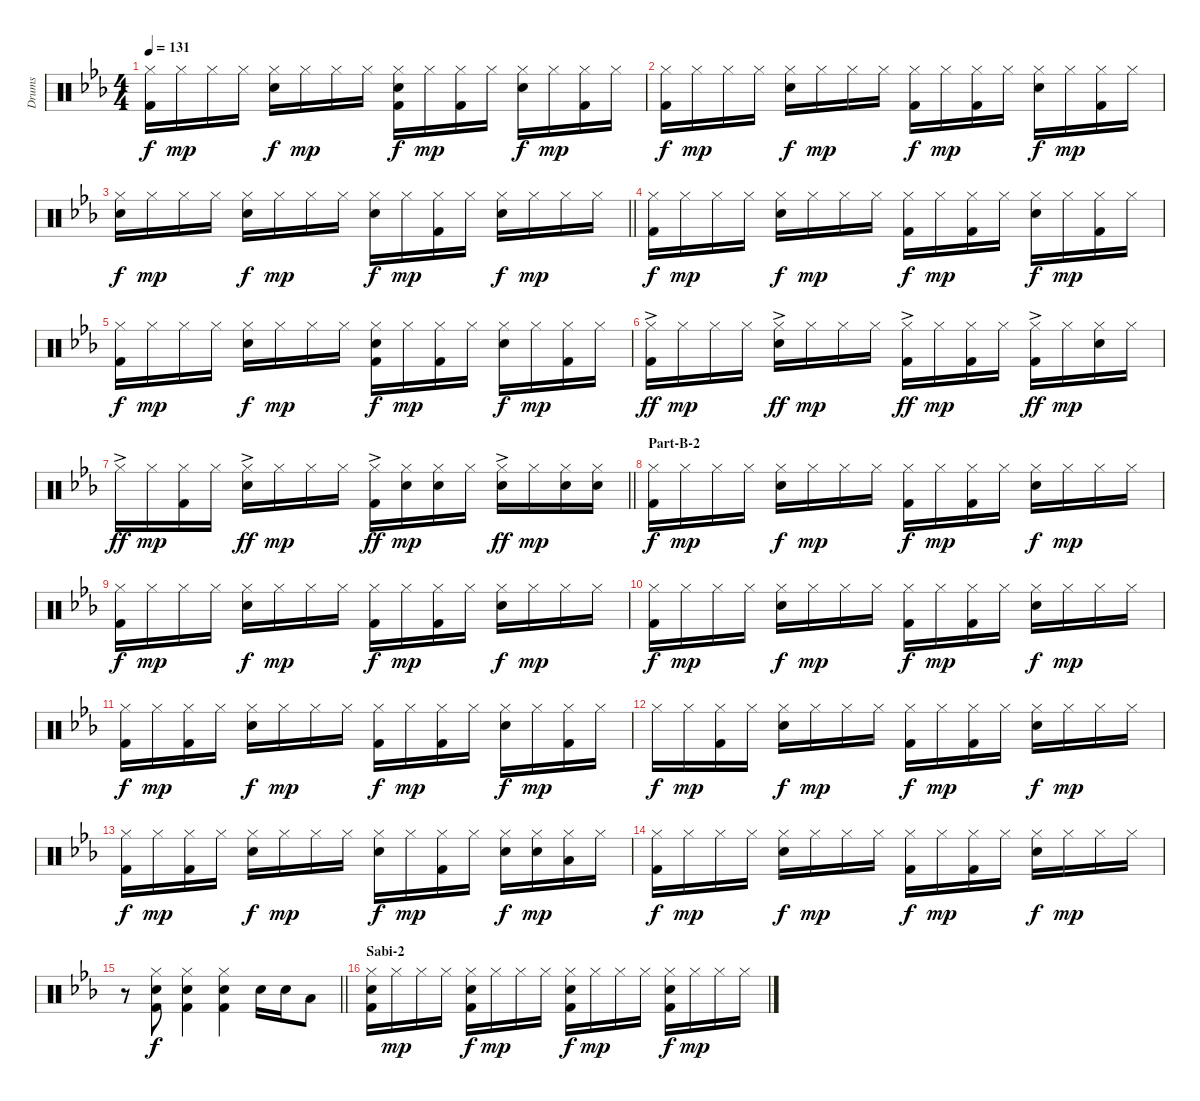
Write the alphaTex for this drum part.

\track ("Drums" "Drums") {instrument percussion}
\staff {score}
\articulation defaults
\ts (4 4)
\tempo 131
\clef neutral
\ks eb
("Hi-Hat (closed)" "Kick (hit) 2").16{dy f} "Hi-Hat (closed)".16{dy mp} "Hi-Hat (closed)".16 "Hi-Hat (closed)".16 ("Hi-Hat (closed)" "Snare (hit) 2").16{dy f} "Hi-Hat (closed)".16{dy mp} "Hi-Hat (closed)".16 "Hi-Hat (closed)".16 ("Hi-Hat (closed)" "Snare (hit) 2" "Kick (hit) 2").16{dy f} "Hi-Hat (closed)".16{dy mp} ("Hi-Hat (closed)" "Kick (hit) 2").16 "Hi-Hat (closed)".16 ("Hi-Hat (closed)" "Snare (hit) 2").16{dy f} "Hi-Hat (closed)".16{dy mp} ("Hi-Hat (closed)" "Kick (hit) 2").16 "Hi-Hat (closed)".16 |
("Hi-Hat (closed)" "Kick (hit) 2").16{dy f} "Hi-Hat (closed)".16{dy mp} "Hi-Hat (closed)".16 "Hi-Hat (closed)".16 ("Hi-Hat (closed)" "Snare (hit) 2").16{dy f} "Hi-Hat (closed)".16{dy mp} "Hi-Hat (closed)".16 "Hi-Hat (closed)".16 ("Hi-Hat (closed)" "Kick (hit) 2").16{dy f} "Hi-Hat (closed)".16{dy mp} ("Hi-Hat (closed)" "Kick (hit) 2").16 "Hi-Hat (closed)".16 ("Hi-Hat (closed)" "Snare (hit) 2").16{dy f} "Hi-Hat (closed)".16{dy mp} ("Hi-Hat (closed)" "Kick (hit) 2").16 "Hi-Hat (closed)".16 |
\barLineRight lightlight
("Hi-Hat (closed)" "Snare (hit) 2").16{dy f} "Hi-Hat (closed)".16{dy mp} "Hi-Hat (closed)".16 "Hi-Hat (closed)".16 ("Hi-Hat (closed)" "Snare (hit) 2").16{dy f} "Hi-Hat (closed)".16{dy mp} "Hi-Hat (closed)".16 "Hi-Hat (closed)".16 ("Hi-Hat (closed)" "Snare (hit) 2").16{dy f} "Hi-Hat (closed)".16{dy mp} ("Hi-Hat (closed)" "Kick (hit) 2").16 "Hi-Hat (closed)".16 ("Hi-Hat (closed)" "Snare (hit) 2").16{dy f} "Hi-Hat (closed)".16{dy mp} "Hi-Hat (closed)".16 "Hi-Hat (closed)".16 |
("Hi-Hat (closed)" "Kick (hit) 2").16{dy f} "Hi-Hat (closed)".16{dy mp} "Hi-Hat (closed)".16 "Hi-Hat (closed)".16 ("Hi-Hat (closed)" "Snare (hit) 2").16{dy f} "Hi-Hat (closed)".16{dy mp} "Hi-Hat (closed)".16 "Hi-Hat (closed)".16 ("Hi-Hat (closed)" "Kick (hit) 2").16{dy f} "Hi-Hat (closed)".16{dy mp} ("Hi-Hat (closed)" "Kick (hit) 2").16 "Hi-Hat (closed)".16 ("Hi-Hat (closed)" "Snare (hit) 2").16{dy f} "Hi-Hat (closed)".16{dy mp} ("Hi-Hat (closed)" "Kick (hit) 2").16 "Hi-Hat (closed)".16 |
("Hi-Hat (closed)" "Kick (hit) 2").16{dy f} "Hi-Hat (closed)".16{dy mp} "Hi-Hat (closed)".16 "Hi-Hat (closed)".16 ("Hi-Hat (closed)" "Snare (hit) 2").16{dy f} "Hi-Hat (closed)".16{dy mp} "Hi-Hat (closed)".16 "Hi-Hat (closed)".16 ("Hi-Hat (closed)" "Snare (hit) 2" "Kick (hit) 2").16{dy f} "Hi-Hat (closed)".16{dy mp} ("Hi-Hat (closed)" "Kick (hit) 2").16 "Hi-Hat (closed)".16 ("Hi-Hat (closed)" "Snare (hit) 2").16{dy f} "Hi-Hat (closed)".16{dy mp} ("Hi-Hat (closed)" "Kick (hit) 2").16 "Hi-Hat (closed)".16 |
("Hi-Hat (closed)"{ac} "Kick (hit) 2").16{dy ff} "Hi-Hat (closed)".16{dy mp} "Hi-Hat (closed)".16 "Hi-Hat (closed)".16 ("Hi-Hat (closed)"{ac} "Snare (hit) 2").16{dy ff} "Hi-Hat (closed)".16{dy mp} "Hi-Hat (closed)".16 "Hi-Hat (closed)".16 ("Hi-Hat (closed)"{ac} "Kick (hit) 2").16{dy ff} "Hi-Hat (closed)".16{dy mp} ("Hi-Hat (closed)" "Kick (hit) 2").16 "Hi-Hat (closed)".16 ("Hi-Hat (closed)"{ac} "Kick (hit) 2").16{dy ff} "Hi-Hat (closed)".16{dy mp} ("Hi-Hat (closed)" "Snare (hit) 2").16 "Hi-Hat (closed)".16 |
\barLineRight lightlight "Hi-Hat (closed)"{ac}.16{dy ff} "Hi-Hat (closed)".16{dy mp}
("Hi-Hat (closed)" "Kick (hit) 2").16 "Hi-Hat (closed)".16 ("Hi-Hat (closed)"{ac} "Snare (hit) 2").16{dy ff} "Hi-Hat (closed)".16{dy mp} "Hi-Hat (closed)".16 "Hi-Hat (closed)".16 ("Hi-Hat (closed)"{ac} "Kick (hit) 2").16{dy ff} ("Hi-Hat (closed)" "Snare (hit) 2").16{dy mp} ("Hi-Hat (closed)" "Snare (hit) 2").16 "Hi-Hat (closed)".16 ("Hi-Hat (closed)"{ac} "Snare (hit) 2").16{dy ff} "Hi-Hat (closed)".16{dy mp} ("Hi-Hat (closed)" "Snare (hit) 2").16 ("Hi-Hat (closed)" "Snare (hit) 2").16 |
\section ("" "Part-B-2")
("Hi-Hat (closed)" "Kick (hit) 2").16{dy f} "Hi-Hat (closed)".16{dy mp} "Hi-Hat (closed)".16 "Hi-Hat (closed)".16 ("Hi-Hat (closed)" "Snare (hit) 2").16{dy f} "Hi-Hat (closed)".16{dy mp} "Hi-Hat (closed)".16 "Hi-Hat (closed)".16 ("Hi-Hat (closed)" "Kick (hit) 2").16{dy f} "Hi-Hat (closed)".16{dy mp} ("Hi-Hat (closed)" "Kick (hit) 2").16 "Hi-Hat (closed)".16 ("Hi-Hat (closed)" "Snare (hit) 2").16{dy f} "Hi-Hat (closed)".16{dy mp} "Hi-Hat (closed)".16 "Hi-Hat (closed)".16 |
("Hi-Hat (closed)" "Kick (hit) 2").16{dy f} "Hi-Hat (closed)".16{dy mp} "Hi-Hat (closed)".16 "Hi-Hat (closed)".16 ("Hi-Hat (closed)" "Snare (hit) 2").16{dy f} "Hi-Hat (closed)".16{dy mp} "Hi-Hat (closed)".16 "Hi-Hat (closed)".16 ("Hi-Hat (closed)" "Kick (hit) 2").16{dy f} "Hi-Hat (closed)".16{dy mp} ("Hi-Hat (closed)" "Kick (hit) 2").16 "Hi-Hat (closed)".16 ("Hi-Hat (closed)" "Snare (hit) 2").16{dy f} "Hi-Hat (closed)".16{dy mp} "Hi-Hat (closed)".16 "Hi-Hat (closed)".16 |
("Hi-Hat (closed)" "Kick (hit) 2").16{dy f} "Hi-Hat (closed)".16{dy mp} "Hi-Hat (closed)".16 "Hi-Hat (closed)".16 ("Hi-Hat (closed)" "Snare (hit) 2").16{dy f} "Hi-Hat (closed)".16{dy mp} "Hi-Hat (closed)".16 "Hi-Hat (closed)".16 ("Hi-Hat (closed)" "Kick (hit) 2").16{dy f} "Hi-Hat (closed)".16{dy mp} ("Hi-Hat (closed)" "Kick (hit) 2").16 "Hi-Hat (closed)".16 ("Hi-Hat (closed)" "Snare (hit) 2").16{dy f} "Hi-Hat (closed)".16{dy mp} "Hi-Hat (closed)".16 "Hi-Hat (closed)".16 |
("Hi-Hat (closed)" "Kick (hit) 2").16{dy f} "Hi-Hat (closed)".16{dy mp} ("Hi-Hat (closed)" "Kick (hit) 2").16 "Hi-Hat (closed)".16 ("Hi-Hat (closed)" "Snare (hit) 2").16{dy f} "Hi-Hat (closed)".16{dy mp} "Hi-Hat (closed)".16 "Hi-Hat (closed)".16 ("Hi-Hat (closed)" "Kick (hit) 2").16{dy f} "Hi-Hat (closed)".16{dy mp} ("Hi-Hat (closed)" "Kick (hit) 2").16 "Hi-Hat (closed)".16 ("Hi-Hat (closed)" "Snare (hit) 2").16{dy f} "Hi-Hat (closed)".16{dy mp} ("Hi-Hat (closed)" "Kick (hit) 2").16 "Hi-Hat (closed)".16 |
"Hi-Hat (closed)".16{dy f} "Hi-Hat (closed)".16{dy mp} ("Hi-Hat (closed)" "Kick (hit) 2").16 "Hi-Hat (closed)".16 ("Hi-Hat (closed)" "Snare (hit) 2").16{dy f} "Hi-Hat (closed)".16{dy mp} "Hi-Hat (closed)".16 "Hi-Hat (closed)".16 ("Hi-Hat (closed)" "Kick (hit) 2").16{dy f} "Hi-Hat (closed)".16{dy mp} ("Hi-Hat (closed)" "Kick (hit) 2").16 "Hi-Hat (closed)".16 ("Hi-Hat (closed)" "Snare (hit) 2").16{dy f} "Hi-Hat (closed)".16{dy mp} "Hi-Hat (closed)".16 "Hi-Hat (closed)".16 |
("Hi-Hat (closed)" "Kick (hit) 2").16{dy f} "Hi-Hat (closed)".16{dy mp} ("Hi-Hat (closed)" "Kick (hit) 2").16 "Hi-Hat (closed)".16 ("Hi-Hat (closed)" "Snare (hit) 2").16{dy f} "Hi-Hat (closed)".16{dy mp} "Hi-Hat (closed)".16 "Hi-Hat (closed)".16 ("Hi-Hat (closed)" "Snare (hit) 2").16{dy f} "Hi-Hat (closed)".16{dy mp} ("Hi-Hat (closed)" "Kick (hit) 2").16 "Hi-Hat (closed)".16 ("Hi-Hat (closed)" "Snare (hit) 2").16{dy f} ("Hi-Hat (closed)" "Snare (hit) 2").16{dy mp} ("Hi-Hat (closed)" "Low Tom (hit)").16 "Hi-Hat (closed)".16 |
("Hi-Hat (closed)" "Kick (hit) 2").16{dy f} "Hi-Hat (closed)".16{dy mp} "Hi-Hat (closed)".16 "Hi-Hat (closed)".16 ("Hi-Hat (closed)" "Snare (hit) 2").16{dy f} "Hi-Hat (closed)".16{dy mp} "Hi-Hat (closed)".16 "Hi-Hat (closed)".16 ("Hi-Hat (closed)" "Kick (hit) 2").16{dy f} "Hi-Hat (closed)".16{dy mp} ("Hi-Hat (closed)" "Kick (hit) 2").16 "Hi-Hat (closed)".16 ("Hi-Hat (closed)" "Snare (hit) 2").16{dy f} "Hi-Hat (closed)".16{dy mp} "Hi-Hat (closed)".16 "Hi-Hat (closed)".16 |
\barLineRight lightlight
r.8 ("Hi-Hat (closed)" "Snare (hit) 2" "Kick (hit) 2").8{dy f} ("Hi-Hat (closed)" "Snare (hit) 2" "Kick (hit) 2").4 ("Hi-Hat (closed)" "Snare (hit) 2" "Kick (hit) 2").4 "Snare (hit) 2".16 "Snare (hit) 2".16 "Low Tom (hit)".8 |
\section ("" "Sabi-2")
("Hi-Hat (closed)" "Snare (hit) 2" "Kick (hit) 2").16 "Hi-Hat (closed)".16{dy mp} "Hi-Hat (closed)".16 "Hi-Hat (closed)".16 ("Hi-Hat (closed)" "Snare (hit) 2" "Kick (hit) 2").16{dy f} "Hi-Hat (closed)".16{dy mp} "Hi-Hat (closed)".16 "Hi-Hat (closed)".16 ("Hi-Hat (closed)" "Snare (hit) 2" "Kick (hit) 2").16{dy f} "Hi-Hat (closed)".16{dy mp} "Hi-Hat (closed)".16 "Hi-Hat (closed)".16 ("Hi-Hat (closed)" "Snare (hit) 2" "Kick (hit) 2").16{dy f} "Hi-Hat (closed)".16{dy mp} "Hi-Hat (closed)".16 "Hi-Hat (closed)".16
